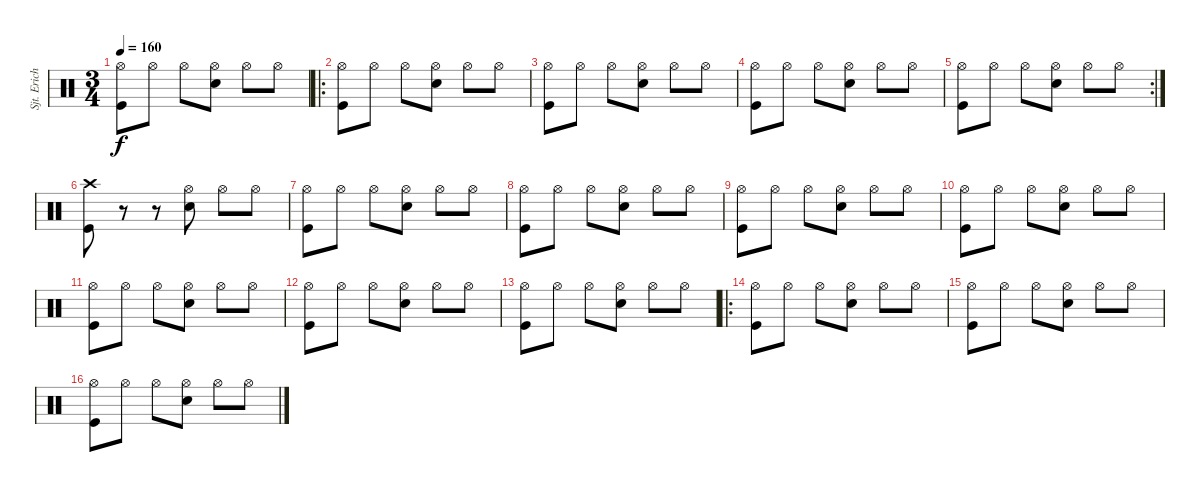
\track ("Sjt. Erichsen" "Sjt. Erich") {instrument percussion}
\staff {score}
\articulation defaults
\ts (3 4)
\tempo 160
\clef neutral
\ks c
("Hi-Hat (open)" "Kick (hit)").8{dy f} "Hi-Hat (open)".8 "Hi-Hat (open)".8 ("Hi-Hat (open)" "Electric Snare (hit)").8 "Hi-Hat (open)".8 "Hi-Hat (open)".8 |
\ro
("Hi-Hat (open)" "Kick (hit)").8 "Hi-Hat (open)".8 "Hi-Hat (open)".8 ("Hi-Hat (open)" "Electric Snare (hit)").8 "Hi-Hat (open)".8 "Hi-Hat (open)".8 |
("Hi-Hat (open)" "Kick (hit)").8 "Hi-Hat (open)".8 "Hi-Hat (open)".8 ("Hi-Hat (open)" "Electric Snare (hit)").8 "Hi-Hat (open)".8 "Hi-Hat (open)".8 |
("Hi-Hat (open)" "Kick (hit)").8 "Hi-Hat (open)".8 "Hi-Hat (open)".8 ("Hi-Hat (open)" "Electric Snare (hit)").8 "Hi-Hat (open)".8 "Hi-Hat (open)".8 |
\rc 2
("Hi-Hat (open)" "Kick (hit)").8 "Hi-Hat (open)".8 "Hi-Hat (open)".8 ("Hi-Hat (open)" "Electric Snare (hit)").8 "Hi-Hat (open)".8 "Hi-Hat (open)".8 |
("Crash high (hit)" "Kick (hit)").8 r.8 r.8 ("Hi-Hat (open)" "Electric Snare (hit)").8 "Hi-Hat (open)".8 "Hi-Hat (open)".8 |
("Hi-Hat (open)" "Kick (hit)").8 "Hi-Hat (open)".8 "Hi-Hat (open)".8 ("Hi-Hat (open)" "Electric Snare (hit)").8 "Hi-Hat (open)".8 "Hi-Hat (open)".8 |
("Hi-Hat (open)" "Kick (hit)").8 "Hi-Hat (open)".8 "Hi-Hat (open)".8 ("Hi-Hat (open)" "Electric Snare (hit)").8 "Hi-Hat (open)".8 "Hi-Hat (open)".8 |
("Hi-Hat (open)" "Kick (hit)").8 "Hi-Hat (open)".8 "Hi-Hat (open)".8 ("Hi-Hat (open)" "Electric Snare (hit)").8 "Hi-Hat (open)".8 "Hi-Hat (open)".8 |
("Hi-Hat (open)" "Kick (hit)").8 "Hi-Hat (open)".8 "Hi-Hat (open)".8 ("Hi-Hat (open)" "Electric Snare (hit)").8 "Hi-Hat (open)".8 "Hi-Hat (open)".8 |
("Hi-Hat (open)" "Kick (hit)").8 "Hi-Hat (open)".8 "Hi-Hat (open)".8 ("Hi-Hat (open)" "Electric Snare (hit)").8 "Hi-Hat (open)".8 "Hi-Hat (open)".8 |
("Hi-Hat (open)" "Kick (hit)").8 "Hi-Hat (open)".8 "Hi-Hat (open)".8 ("Hi-Hat (open)" "Electric Snare (hit)").8 "Hi-Hat (open)".8 "Hi-Hat (open)".8 |
("Hi-Hat (open)" "Kick (hit)").8 "Hi-Hat (open)".8 "Hi-Hat (open)".8 ("Hi-Hat (open)" "Electric Snare (hit)").8 "Hi-Hat (open)".8 "Hi-Hat (open)".8 |
\ro
("Hi-Hat (open)" "Kick (hit)").8 "Hi-Hat (open)".8 "Hi-Hat (open)".8 ("Hi-Hat (open)" "Electric Snare (hit)").8 "Hi-Hat (open)".8 "Hi-Hat (open)".8 |
("Hi-Hat (open)" "Kick (hit)").8 "Hi-Hat (open)".8 "Hi-Hat (open)".8 ("Hi-Hat (open)" "Electric Snare (hit)").8 "Hi-Hat (open)".8 "Hi-Hat (open)".8 |
("Hi-Hat (open)" "Kick (hit)").8 "Hi-Hat (open)".8 "Hi-Hat (open)".8 ("Hi-Hat (open)" "Electric Snare (hit)").8 "Hi-Hat (open)".8 "Hi-Hat (open)".8
